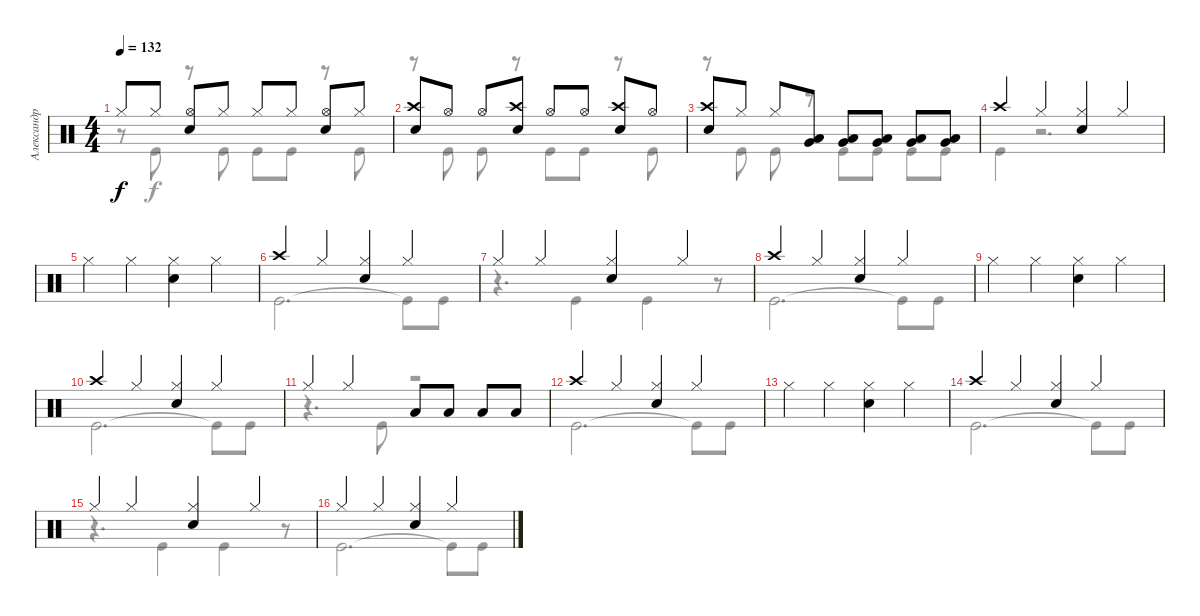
\track ("Александр Манякин" "Александр ") {instrument percussion}
\staff {score}
\articulation defaults
\voice
\ts (4 4)
\tempo 132
\clef neutral
\ks c "Hi-Hat (closed)".8{dy f} "Hi-Hat (closed)".8
("Hi-Hat (open)" "Snare (hit) 2").8 "Hi-Hat (closed)".8 "Hi-Hat (closed)".8 "Hi-Hat (closed)".8 ("Hi-Hat (open)" "Snare (hit) 2").8 "Hi-Hat (closed)".8 |
("Crash high (hit)" "Snare (hit) 2").8 "Hi-Hat (open)".8 "Hi-Hat (open)".8 ("Crash high (hit)" "Snare (hit) 2").8 "Hi-Hat (open)".8 "Hi-Hat (open)".8 ("Crash high (hit)" "Snare (hit) 2").8 "Hi-Hat (open)".8 |
("Snare (hit) 2" "Crash high (hit)").8 "Hi-Hat (closed)".8 "Hi-Hat (closed)".8 ("Low Tom (hit)" "Very Low Tom (hit)").8 ("Low Tom (hit)" "Very Low Tom (hit)").8 ("Low Tom (hit)" "Very Low Tom (hit)").8 ("Low Tom (hit)" "Very Low Tom (hit)").8 ("Low Tom (hit)" "Very Low Tom (hit)").8 |
"Crash high (hit)".4 "Hi-Hat (closed)".4 ("Hi-Hat (closed)" "Snare (hit) 2").4 "Hi-Hat (closed)".4 |
"Hi-Hat (closed)".4 "Hi-Hat (closed)".4 ("Hi-Hat (closed)" "Snare (hit) 2").4 "Hi-Hat (closed)".4 |
"Crash high (hit)".4 "Hi-Hat (closed)".4 ("Hi-Hat (closed)" "Snare (hit) 2").4 "Hi-Hat (closed)".4 |
"Hi-Hat (closed)".4 "Hi-Hat (closed)".4 ("Hi-Hat (closed)" "Snare (hit) 2").4 "Hi-Hat (closed)".4 |
"Crash high (hit)".4 "Hi-Hat (closed)".4 ("Hi-Hat (closed)" "Snare (hit) 2").4 "Hi-Hat (closed)".4 |
"Hi-Hat (closed)".4 "Hi-Hat (closed)".4 ("Hi-Hat (closed)" "Snare (hit) 2").4 "Hi-Hat (closed)".4 |
"Crash high (hit)".4 "Hi-Hat (closed)".4 ("Hi-Hat (closed)" "Snare (hit) 2").4 "Hi-Hat (closed)".4 |
"Hi-Hat (closed)".4 "Hi-Hat (closed)".4 "Low Tom (hit)".8 "Low Tom (hit)".8 "Low Tom (hit)".8 "Low Tom (hit)".8 |
"Crash high (hit)".4 "Hi-Hat (closed)".4 ("Hi-Hat (closed)" "Snare (hit) 2").4 "Hi-Hat (closed)".4 |
"Hi-Hat (closed)".4 "Hi-Hat (closed)".4 ("Hi-Hat (closed)" "Snare (hit) 2").4 "Hi-Hat (closed)".4 |
"Crash high (hit)".4 "Hi-Hat (closed)".4 ("Hi-Hat (closed)" "Snare (hit) 2").4 "Hi-Hat (closed)".4 |
"Hi-Hat (closed)".4 "Hi-Hat (closed)".4 ("Hi-Hat (closed)" "Snare (hit) 2").4 "Hi-Hat (closed)".4 |
"Hi-Hat (closed)".4 "Hi-Hat (closed)".4 ("Hi-Hat (closed)" "Snare (hit) 2").4 "Hi-Hat (closed)".4
\voice
\clef neutral
\ottava regular
\simile none
\ks c
r.8{dy f} "Kick (hit)".8 r.8 "Kick (hit)".8 "Kick (hit)".8 "Kick (hit)".8 r.8 "Kick (hit)".8 |
r.8 "Kick (hit)".8 "Kick (hit)".8 r.8 "Kick (hit)".8 "Kick (hit)".8 r.8 "Kick (hit)".8 |
r.8 "Kick (hit)".8 "Kick (hit)".8 r.8 "Kick (hit)".8 "Kick (hit)".8 "Kick (hit)".8 "Kick (hit)".8 |
"Kick (hit)".4 r.2{d} |
|
"Kick (hit)".2{d} "Kick (hit)"{t}.8 "Kick (hit)".8 |
r.4{d} "Kick (hit)".4 "Kick (hit)".4 r.8 |
"Kick (hit)".2{d} "Kick (hit)"{t}.8 "Kick (hit)".8 |
|
"Kick (hit)".2{d} "Kick (hit)"{t}.8 "Kick (hit)".8 |
r.4{d} "Kick (hit)".8 r.2 |
"Kick (hit)".2{d} "Kick (hit)"{t}.8 "Kick (hit)".8 |
|
"Kick (hit)".2{d} "Kick (hit)"{t}.8 "Kick (hit)".8 |
r.4{d} "Kick (hit)".4 "Kick (hit)".4 r.8 |
"Kick (hit)".2{d} "Kick (hit)"{t}.8 "Kick (hit)".8
